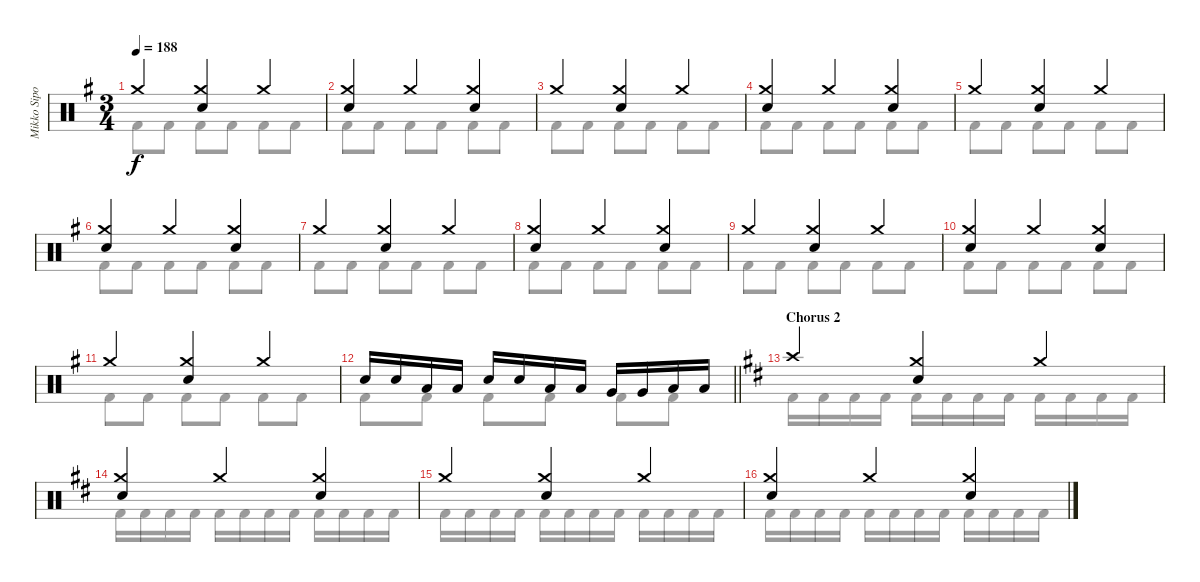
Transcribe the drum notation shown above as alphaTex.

\track ("Mikko Sipola (drums)" "Mikko Sipo") {instrument percussion}
\staff {score}
\articulation defaults
\voice
\ts (3 4)
\tempo 188
\clef neutral
\ks eminor "Crash medium (hit)".4{dy f}
("Crash medium (hit)" "Electric Snare (hit)").4 "Crash medium (hit)".4 |
("Crash medium (hit)" "Electric Snare (hit)").4 "Crash medium (hit)".4 ("Crash medium (hit)" "Electric Snare (hit)").4 |
"Crash medium (hit)".4 ("Crash medium (hit)" "Electric Snare (hit)").4 "Crash medium (hit)".4 |
("Crash medium (hit)" "Electric Snare (hit)").4 "Crash medium (hit)".4 ("Crash medium (hit)" "Electric Snare (hit)").4 |
"Crash medium (hit)".4 ("Crash medium (hit)" "Electric Snare (hit)").4 "Crash medium (hit)".4 |
("Crash medium (hit)" "Electric Snare (hit)").4 "Crash medium (hit)".4 ("Crash medium (hit)" "Electric Snare (hit)").4 |
"Crash medium (hit)".4 ("Crash medium (hit)" "Electric Snare (hit)").4 "Crash medium (hit)".4 |
("Crash medium (hit)" "Electric Snare (hit)").4 "Crash medium (hit)".4 ("Crash medium (hit)" "Electric Snare (hit)").4 |
"Crash medium (hit)".4 ("Crash medium (hit)" "Electric Snare (hit)").4 "Crash medium (hit)".4 |
("Crash medium (hit)" "Electric Snare (hit)").4 "Crash medium (hit)".4 ("Crash medium (hit)" "Electric Snare (hit)").4 |
"Crash medium (hit)".4 ("Crash medium (hit)" "Electric Snare (hit)").4 "Crash medium (hit)".4 |
\barLineRight lightlight "Electric Snare (hit)".16 "Electric Snare (hit)".16 "Low Tom (hit)".16 "Low Tom (hit)".16 "Electric Snare (hit)".16 "Electric Snare (hit)".16 "Low Tom (hit)".16 "Low Tom (hit)".16 "Very Low Tom (hit)".16 "Very Low Tom (hit)".16 "Low Floor Tom (hit)".16 "Low Floor Tom (hit)".16
|
\section ("" "Chorus 2")
\ks bminor "Crash high (hit)".4
("Crash medium (hit)" "Electric Snare (hit)").4 "Crash medium (hit)".4 |
("Crash medium (hit)" "Electric Snare (hit)").4 "Crash medium (hit)".4 ("Crash medium (hit)" "Electric Snare (hit)").4 |
"Crash medium (hit)".4 ("Crash medium (hit)" "Electric Snare (hit)").4 "Crash medium (hit)".4 |
("Crash medium (hit)" "Electric Snare (hit)").4 "Crash medium (hit)".4 ("Crash medium (hit)" "Electric Snare (hit)").4
\voice
\clef neutral
\ottava regular
\simile none
\ks eminor "Kick (hit) 2".8{dy f} "Kick (hit) 2".8 "Kick (hit) 2".8 "Kick (hit) 2".8 "Kick (hit) 2".8 "Kick (hit) 2".8
|
"Kick (hit) 2".8 "Kick (hit) 2".8 "Kick (hit) 2".8 "Kick (hit) 2".8 "Kick (hit) 2".8 "Kick (hit) 2".8 |
"Kick (hit) 2".8 "Kick (hit) 2".8 "Kick (hit) 2".8 "Kick (hit) 2".8 "Kick (hit) 2".8 "Kick (hit) 2".8 |
"Kick (hit) 2".8 "Kick (hit) 2".8 "Kick (hit) 2".8 "Kick (hit) 2".8 "Kick (hit) 2".8 "Kick (hit) 2".8 |
"Kick (hit) 2".8 "Kick (hit) 2".8 "Kick (hit) 2".8 "Kick (hit) 2".8 "Kick (hit) 2".8 "Kick (hit) 2".8 |
"Kick (hit) 2".8 "Kick (hit) 2".8 "Kick (hit) 2".8 "Kick (hit) 2".8 "Kick (hit) 2".8 "Kick (hit) 2".8 |
"Kick (hit) 2".8 "Kick (hit) 2".8 "Kick (hit) 2".8 "Kick (hit) 2".8 "Kick (hit) 2".8 "Kick (hit) 2".8 |
"Kick (hit) 2".8 "Kick (hit) 2".8 "Kick (hit) 2".8 "Kick (hit) 2".8 "Kick (hit) 2".8 "Kick (hit) 2".8 |
"Kick (hit) 2".8 "Kick (hit) 2".8 "Kick (hit) 2".8 "Kick (hit) 2".8 "Kick (hit) 2".8 "Kick (hit) 2".8 |
"Kick (hit) 2".8 "Kick (hit) 2".8 "Kick (hit) 2".8 "Kick (hit) 2".8 "Kick (hit) 2".8 "Kick (hit) 2".8 |
"Kick (hit) 2".8 "Kick (hit) 2".8 "Kick (hit) 2".8 "Kick (hit) 2".8 "Kick (hit) 2".8 "Kick (hit) 2".8 |
\barLineRight lightlight "Kick (hit) 2".8 "Kick (hit) 2".8 "Kick (hit) 2".8 "Kick (hit) 2".8 "Kick (hit) 2".8 "Kick (hit) 2".8
|
\ks bminor "Kick (hit) 2".16 "Kick (hit) 2".16 "Kick (hit) 2".16 "Kick (hit) 2".16 "Kick (hit) 2".16 "Kick (hit) 2".16 "Kick (hit) 2".16 "Kick (hit) 2".16 "Kick (hit) 2".16 "Kick (hit) 2".16 "Kick (hit) 2".16 "Kick (hit) 2".16
|
"Kick (hit) 2".16 "Kick (hit) 2".16 "Kick (hit) 2".16 "Kick (hit) 2".16 "Kick (hit) 2".16 "Kick (hit) 2".16 "Kick (hit) 2".16 "Kick (hit) 2".16 "Kick (hit) 2".16 "Kick (hit) 2".16 "Kick (hit) 2".16 "Kick (hit) 2".16 |
"Kick (hit) 2".16 "Kick (hit) 2".16 "Kick (hit) 2".16 "Kick (hit) 2".16 "Kick (hit) 2".16 "Kick (hit) 2".16 "Kick (hit) 2".16 "Kick (hit) 2".16 "Kick (hit) 2".16 "Kick (hit) 2".16 "Kick (hit) 2".16 "Kick (hit) 2".16 |
"Kick (hit) 2".16 "Kick (hit) 2".16 "Kick (hit) 2".16 "Kick (hit) 2".16 "Kick (hit) 2".16 "Kick (hit) 2".16 "Kick (hit) 2".16 "Kick (hit) 2".16 "Kick (hit) 2".16 "Kick (hit) 2".16 "Kick (hit) 2".16 "Kick (hit) 2".16
